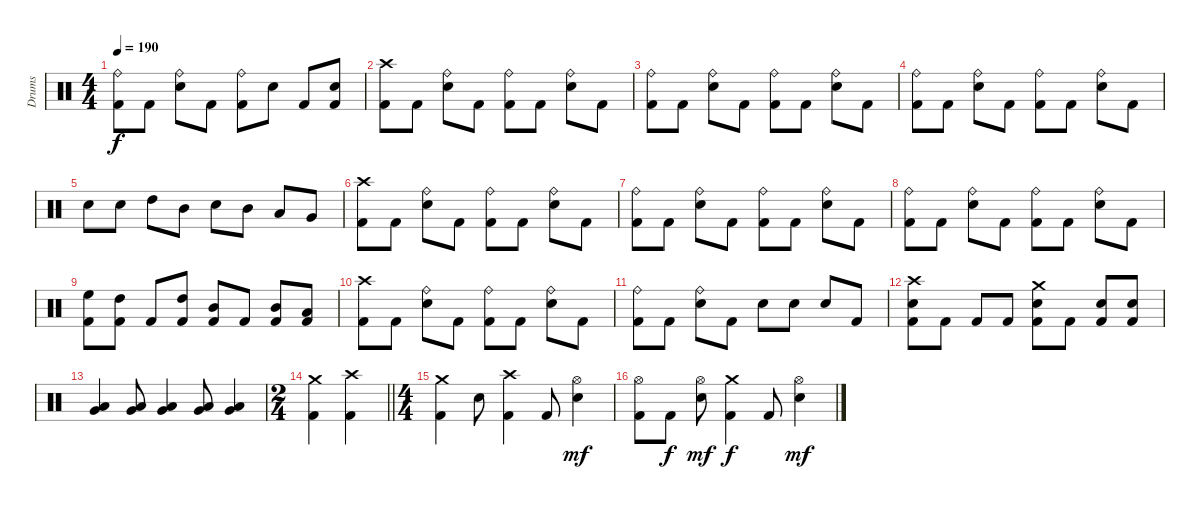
\track ("Drums" "Drums") {instrument percussion}
\staff {score}
\articulation defaults
\ts (4 4)
\tempo 190
\clef neutral
\ks c
("Ride (bell)" "Kick (hit) 2").8{dy f} "Kick (hit) 2".8 ("Ride (bell)" "Electric Snare (hit)").8 "Kick (hit) 2".8 ("Ride (bell)" "Kick (hit) 2").8 "Electric Snare (hit)".8 "Kick (hit) 2".8 ("Electric Snare (hit)" "Kick (hit) 2").8 |
("Crash high (hit)" "Kick (hit) 2").8 "Kick (hit) 2".8 ("Ride (bell)" "Electric Snare (hit)").8 "Kick (hit) 2".8 ("Ride (bell)" "Kick (hit) 2").8 "Kick (hit) 2".8 ("Ride (bell)" "Electric Snare (hit)").8 "Kick (hit) 2".8 |
("Ride (bell)" "Kick (hit) 2").8 "Kick (hit) 2".8 ("Ride (bell)" "Electric Snare (hit)").8 "Kick (hit) 2".8 ("Ride (bell)" "Kick (hit) 2").8 "Kick (hit) 2".8 ("Ride (bell)" "Electric Snare (hit)").8 "Kick (hit) 2".8 |
("Ride (bell)" "Kick (hit) 2").8 "Kick (hit) 2".8 ("Ride (bell)" "Electric Snare (hit)").8 "Kick (hit) 2".8 ("Ride (bell)" "Kick (hit) 2").8 "Kick (hit) 2".8 ("Ride (bell)" "Electric Snare (hit)").8 "Kick (hit) 2".8 |
"Electric Snare (hit)".8 "Electric Snare (hit)".8 "High Tom (hit)".8 "Mid Tom (hit)".8 "Electric Snare (hit)".8 "Mid Tom (hit)".8 "Low Tom (hit)".8 "Very Low Tom (hit)".8 |
("Crash high (hit)" "Kick (hit) 2").8 "Kick (hit) 2".8 ("Ride (bell)" "Electric Snare (hit)").8 "Kick (hit) 2".8 ("Ride (bell)" "Kick (hit) 2").8 "Kick (hit) 2".8 ("Ride (bell)" "Electric Snare (hit)").8 "Kick (hit) 2".8 |
("Ride (bell)" "Kick (hit) 2").8 "Kick (hit) 2".8 ("Ride (bell)" "Electric Snare (hit)").8 "Kick (hit) 2".8 ("Ride (bell)" "Kick (hit) 2").8 "Kick (hit) 2".8 ("Ride (bell)" "Electric Snare (hit)").8 "Kick (hit) 2".8 |
("Ride (bell)" "Kick (hit) 2").8 "Kick (hit) 2".8 ("Ride (bell)" "Electric Snare (hit)").8 "Kick (hit) 2".8 ("Ride (bell)" "Kick (hit) 2").8 "Kick (hit) 2".8 ("Ride (bell)" "Electric Snare (hit)").8 "Kick (hit) 2".8 |
("High Floor Tom (hit)" "Kick (hit) 2").8 ("High Tom (hit)" "Kick (hit) 2").8 "Kick (hit) 2".8 ("High Tom (hit)" "Kick (hit) 2").8 ("Mid Tom (hit)" "Kick (hit) 2").8 "Kick (hit) 2".8 ("Mid Tom (hit)" "Kick (hit) 2").8 ("Low Tom (hit)" "Kick (hit) 2").8 |
("Crash high (hit)" "Kick (hit) 2").8 "Kick (hit) 2".8 ("Ride (bell)" "Electric Snare (hit)").8 "Kick (hit) 2".8 ("Ride (bell)" "Kick (hit) 2").8 "Kick (hit) 2".8 ("Ride (bell)" "Electric Snare (hit)").8 "Kick (hit) 2".8 |
("Ride (bell)" "Kick (hit) 2").8 "Kick (hit) 2".8 ("Ride (bell)" "Electric Snare (hit)").8 "Kick (hit) 2".8 "Electric Snare (hit)".8 "Electric Snare (hit)".8 "Electric Snare (hit)".8 "Kick (hit) 2".8 |
("Crash high (hit)" "Electric Snare (hit)" "Kick (hit) 2").8 "Kick (hit) 2".8 "Kick (hit) 2".8 "Kick (hit) 2".8 ("Crash medium (hit)" "Electric Snare (hit)" "Kick (hit) 2").8 "Kick (hit) 2".8 ("Electric Snare (hit)" "Kick (hit) 2").8 ("Electric Snare (hit)" "Kick (hit) 2").8 |
("Low Tom (hit)" "Very Low Tom (hit)").4 ("Low Tom (hit)" "Very Low Tom (hit)").8 ("Low Tom (hit)" "Very Low Tom (hit)").4 ("Low Tom (hit)" "Very Low Tom (hit)").8 ("Low Tom (hit)" "Very Low Tom (hit)").4 |
\ts (2 4)
\barLineRight lightlight
("Crash medium (hit)" "Kick (hit) 2").4 ("Crash high (hit)" "Kick (hit) 2").4 |
\ts (4 4)
("Crash medium (hit)" "Kick (hit) 2").4 "Electric Snare (hit)".8 ("Crash high (hit)" "Kick (hit) 2").4 "Kick (hit) 2".8 ("Hi-Hat (open)" "Electric Snare (hit)").4{dy mf} |
("Hi-Hat (open)" "Kick (hit) 2").8 "Kick (hit) 2".8{dy f} ("Hi-Hat (open)" "Electric Snare (hit)").8{dy mf} ("Crash medium (hit)" "Kick (hit) 2").4{dy f} "Kick (hit) 2".8 ("Hi-Hat (open)" "Electric Snare (hit)").4{dy mf}
